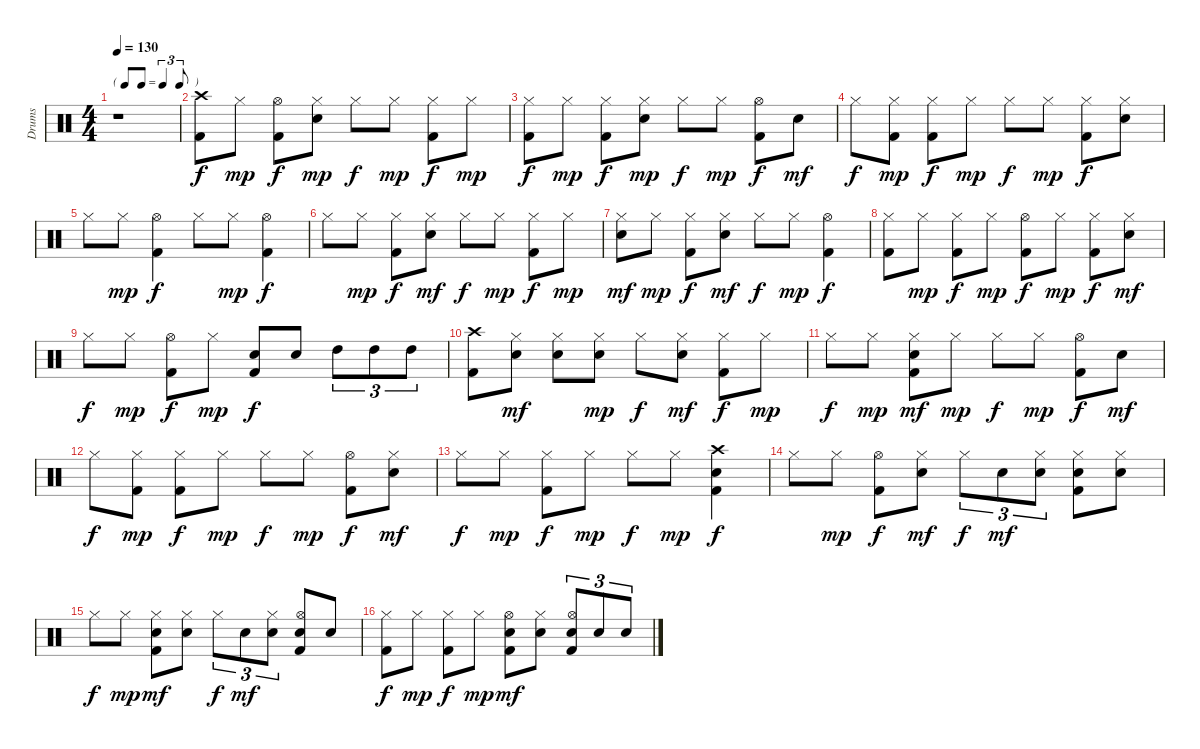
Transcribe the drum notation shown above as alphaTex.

\track ("Drums" "Drums") {instrument percussion}
\staff {score}
\articulation defaults
\ts (4 4)
\tf triplet8th
\tempo 130
\clef neutral
\ks c
r.1{dy f} |
("Crash high (hit)" "Kick (hit) 2").8 "Hi-Hat (closed)".8{dy mp} ("Hi-Hat (open)" "Kick (hit) 2").8{dy f} ("Hi-Hat (closed)" "Electric Snare (hit)").8{dy mp} "Hi-Hat (closed)".8{dy f} "Hi-Hat (closed)".8{dy mp} ("Hi-Hat (closed)" "Kick (hit) 2").8{dy f} "Hi-Hat (closed)".8{dy mp} |
("Hi-Hat (closed)" "Kick (hit) 2").8{dy f} "Hi-Hat (closed)".8{dy mp} ("Hi-Hat (closed)" "Kick (hit) 2").8{dy f} ("Hi-Hat (closed)" "Electric Snare (hit)").8{dy mp} "Hi-Hat (closed)".8{dy f} "Hi-Hat (closed)".8{dy mp} ("Hi-Hat (open)" "Kick (hit) 2").8{dy f} "Electric Snare (hit)".8{dy mf} |
"Hi-Hat (closed)".8{dy f} ("Hi-Hat (closed)" "Kick (hit) 2").8{dy mp} ("Hi-Hat (closed)" "Kick (hit) 2").8{dy f} "Hi-Hat (closed)".8{dy mp} "Hi-Hat (closed)".8{dy f} "Hi-Hat (closed)".8{dy mp} ("Hi-Hat (closed)" "Kick (hit) 2").8{dy f} ("Hi-Hat (closed)" "Electric Snare (hit)").8 |
"Hi-Hat (closed)".8 "Hi-Hat (closed)".8{dy mp} ("Hi-Hat (open)" "Kick (hit) 2").4{dy f} "Hi-Hat (closed)".8 "Hi-Hat (closed)".8{dy mp} ("Hi-Hat (open)" "Kick (hit) 2").4{dy f} |
"Hi-Hat (closed)".8 "Hi-Hat (closed)".8{dy mp} ("Hi-Hat (closed)" "Kick (hit) 2").8{dy f} ("Hi-Hat (closed)" "Electric Snare (hit)").8{dy mf} "Hi-Hat (closed)".8{dy f} "Hi-Hat (closed)".8{dy mp} ("Hi-Hat (closed)" "Kick (hit) 2").8{dy f} "Hi-Hat (closed)".8{dy mp} |
("Hi-Hat (closed)" "Electric Snare (hit)").8{dy mf} "Hi-Hat (closed)".8{dy mp} ("Hi-Hat (closed)" "Kick (hit) 2").8{dy f} ("Hi-Hat (closed)" "Electric Snare (hit)").8{dy mf} "Hi-Hat (closed)".8{dy f} "Hi-Hat (closed)".8{dy mp} ("Hi-Hat (open)" "Kick (hit) 2").4{dy f} |
("Hi-Hat (closed)" "Kick (hit) 2").8 "Hi-Hat (closed)".8{dy mp} ("Hi-Hat (closed)" "Kick (hit) 2").8{dy f} "Hi-Hat (closed)".8{dy mp} ("Hi-Hat (open)" "Kick (hit) 2").8{dy f} "Hi-Hat (closed)".8{dy mp} ("Hi-Hat (closed)" "Kick (hit) 2").8{dy f} ("Hi-Hat (closed)" "Electric Snare (hit)").8{dy mf} |
"Hi-Hat (closed)".8{dy f} "Hi-Hat (closed)".8{dy mp} ("Hi-Hat (open)" "Kick (hit) 2").8{dy f} "Hi-Hat (closed)".8{dy mp} ("Electric Snare (hit)" "Kick (hit) 2").8{dy f} "Electric Snare (hit)".8 "High Tom (hit)".8{tu (3 2)} "High Tom (hit)".8{tu (3 2)} "High Tom (hit)".8{tu (3 2)} |
("Crash high (hit)" "Kick (hit) 2").8 ("Hi-Hat (closed)" "Electric Snare (hit)").8{dy mf} ("Hi-Hat (closed)" "Electric Snare (hit)").8 ("Hi-Hat (closed)" "Electric Snare (hit)").8{dy mp} "Hi-Hat (closed)".8{dy f} ("Hi-Hat (closed)" "Electric Snare (hit)").8{dy mf} ("Hi-Hat (closed)" "Kick (hit) 2").8{dy f} "Hi-Hat (closed)".8{dy mp} |
"Hi-Hat (closed)".8{dy f} "Hi-Hat (closed)".8{dy mp} ("Hi-Hat (closed)" "Electric Snare (hit)" "Kick (hit) 2").8{dy mf} "Hi-Hat (closed)".8{dy mp} "Hi-Hat (closed)".8{dy f} "Hi-Hat (closed)".8{dy mp} ("Hi-Hat (open)" "Kick (hit) 2").8{dy f} "Electric Snare (hit)".8{dy mf} |
"Hi-Hat (closed)".8{dy f} ("Hi-Hat (closed)" "Kick (hit) 2").8{dy mp} ("Hi-Hat (closed)" "Kick (hit) 2").8{dy f} "Hi-Hat (closed)".8{dy mp} "Hi-Hat (closed)".8{dy f} "Hi-Hat (closed)".8{dy mp} ("Hi-Hat (open)" "Kick (hit) 2").8{dy f} ("Hi-Hat (closed)" "Electric Snare (hit)").8{dy mf} |
"Hi-Hat (closed)".8{dy f} "Hi-Hat (closed)".8{dy mp} ("Hi-Hat (closed)" "Kick (hit) 2").8{dy f} "Hi-Hat (closed)".8{dy mp} "Hi-Hat (closed)".8{dy f} "Hi-Hat (closed)".8{dy mp} ("Crash high (hit)" "Electric Snare (hit)" "Kick (hit) 2").4{dy f} |
"Hi-Hat (closed)".8 "Hi-Hat (closed)".8{dy mp} ("Hi-Hat (open)" "Kick (hit) 2").8{dy f} ("Hi-Hat (closed)" "Electric Snare (hit)").8{dy mf} "Hi-Hat (closed)".8{tu (3 2) dy f} "Electric Snare (hit)".8{tu (3 2) dy mf} ("Hi-Hat (closed)" "Electric Snare (hit)").8{tu (3 2)} ("Hi-Hat (closed)" "Electric Snare (hit)" "Kick (hit) 2").8 ("Hi-Hat (closed)" "Electric Snare (hit)").8 |
"Hi-Hat (closed)".8{dy f} "Hi-Hat (closed)".8{dy mp} ("Hi-Hat (closed)" "Electric Snare (hit)" "Kick (hit) 2").8{dy mf} ("Hi-Hat (closed)" "Electric Snare (hit)").8 "Hi-Hat (closed)".8{tu (3 2) dy f} "Electric Snare (hit)".8{tu (3 2) dy mf} ("Hi-Hat (closed)" "Electric Snare (hit)").8{tu (3 2)} ("Hi-Hat (open)" "Electric Snare (hit)" "Kick (hit) 2").8 "Electric Snare (hit)".8 |
("Hi-Hat (closed)" "Kick (hit) 2").8{dy f} "Hi-Hat (closed)".8{dy mp} ("Hi-Hat (closed)" "Kick (hit) 2").8{dy f} "Hi-Hat (closed)".8{dy mp} ("Hi-Hat (open)" "Electric Snare (hit)" "Kick (hit) 2").8{dy mf} ("Hi-Hat (closed)" "Electric Snare (hit)").8 ("Hi-Hat (open)" "Electric Snare (hit)" "Kick (hit) 2").8{tu (3 2)} "Electric Snare (hit)".8{tu (3 2)} "Electric Snare (hit)".8{tu (3 2)}
